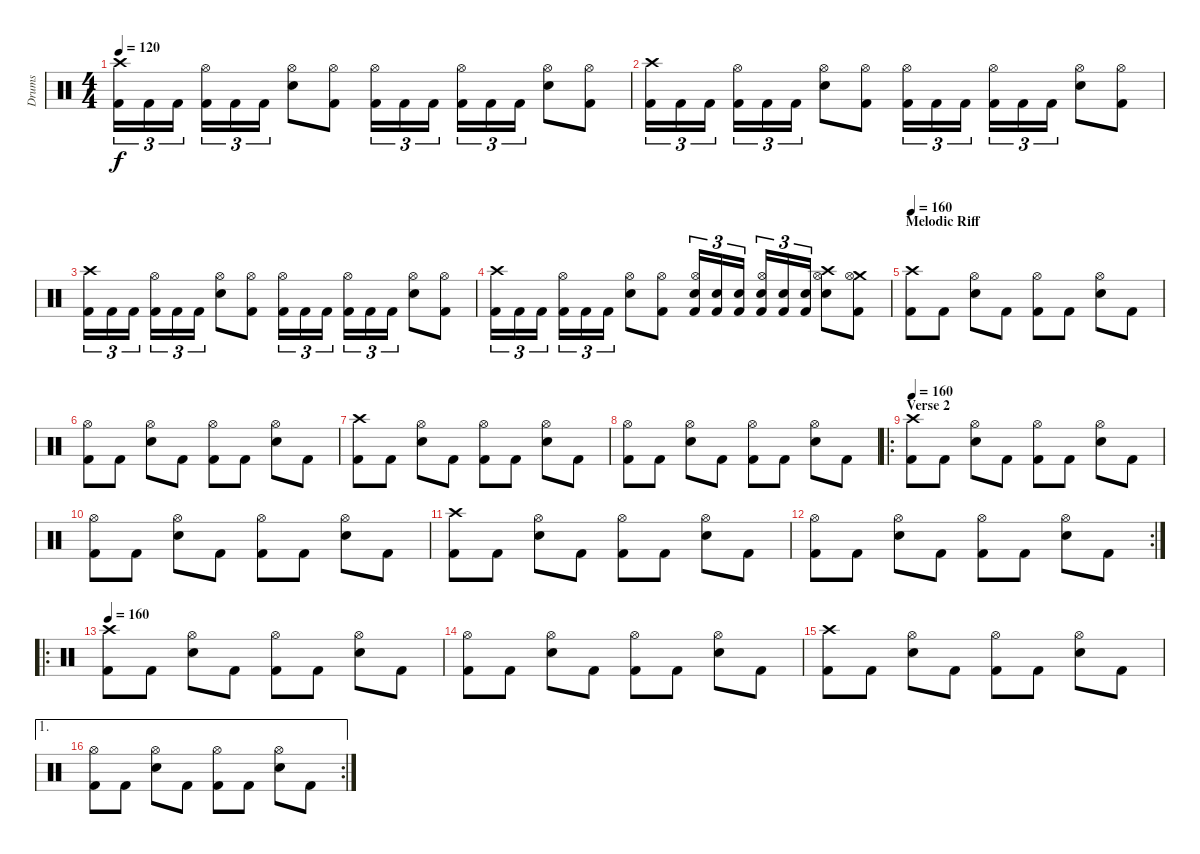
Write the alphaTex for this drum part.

\track ("Drums" "Drums") {instrument percussion}
\staff {score}
\articulation defaults
\ts (4 4)
\tempo 120
\clef neutral
\ks c
("Kick (hit) 2" "Crash high (hit)").16{tu (3 2) dy f} "Kick (hit) 2".16{tu (3 2)} "Kick (hit) 2".16{tu (3 2)} ("Kick (hit) 2" "Hi-Hat (open)").16{tu (3 2)} "Kick (hit) 2".16{tu (3 2)} "Kick (hit) 2".16{tu (3 2)} ("Electric Snare (hit)" "Hi-Hat (open)").8 ("Kick (hit) 2" "Hi-Hat (open)").8 ("Kick (hit) 2" "Hi-Hat (open)").16{tu (3 2)} "Kick (hit) 2".16{tu (3 2)} "Kick (hit) 2".16{tu (3 2)} ("Kick (hit) 2" "Hi-Hat (open)").16{tu (3 2)} "Kick (hit) 2".16{tu (3 2)} "Kick (hit) 2".16{tu (3 2)} ("Electric Snare (hit)" "Hi-Hat (open)").8 ("Kick (hit) 2" "Hi-Hat (open)").8 |
("Kick (hit) 2" "Crash high (hit)").16{tu (3 2)} "Kick (hit) 2".16{tu (3 2)} "Kick (hit) 2".16{tu (3 2)} ("Kick (hit) 2" "Hi-Hat (open)").16{tu (3 2)} "Kick (hit) 2".16{tu (3 2)} "Kick (hit) 2".16{tu (3 2)} ("Electric Snare (hit)" "Hi-Hat (open)").8 ("Kick (hit) 2" "Hi-Hat (open)").8 ("Kick (hit) 2" "Hi-Hat (open)").16{tu (3 2)} "Kick (hit) 2".16{tu (3 2)} "Kick (hit) 2".16{tu (3 2)} ("Kick (hit) 2" "Hi-Hat (open)").16{tu (3 2)} "Kick (hit) 2".16{tu (3 2)} "Kick (hit) 2".16{tu (3 2)} ("Electric Snare (hit)" "Hi-Hat (open)").8 ("Kick (hit) 2" "Hi-Hat (open)").8 |
("Kick (hit) 2" "Crash high (hit)").16{tu (3 2)} "Kick (hit) 2".16{tu (3 2)} "Kick (hit) 2".16{tu (3 2)} ("Kick (hit) 2" "Hi-Hat (open)").16{tu (3 2)} "Kick (hit) 2".16{tu (3 2)} "Kick (hit) 2".16{tu (3 2)} ("Electric Snare (hit)" "Hi-Hat (open)").8 ("Kick (hit) 2" "Hi-Hat (open)").8 ("Kick (hit) 2" "Hi-Hat (open)").16{tu (3 2)} "Kick (hit) 2".16{tu (3 2)} "Kick (hit) 2".16{tu (3 2)} ("Kick (hit) 2" "Hi-Hat (open)").16{tu (3 2)} "Kick (hit) 2".16{tu (3 2)} "Kick (hit) 2".16{tu (3 2)} ("Electric Snare (hit)" "Hi-Hat (open)").8 ("Kick (hit) 2" "Hi-Hat (open)").8 |
("Kick (hit) 2" "Crash high (hit)").16{tu (3 2)} "Kick (hit) 2".16{tu (3 2)} "Kick (hit) 2".16{tu (3 2)} ("Kick (hit) 2" "Hi-Hat (open)").16{tu (3 2)} "Kick (hit) 2".16{tu (3 2)} "Kick (hit) 2".16{tu (3 2)} ("Electric Snare (hit)" "Hi-Hat (open)").8 ("Kick (hit) 2" "Hi-Hat (open)").8 ("Kick (hit) 2" "Electric Snare (hit)" "Hi-Hat (open)").16{tu (3 2)} ("Kick (hit) 2" "Electric Snare (hit)").16{tu (3 2)} ("Kick (hit) 2" "Electric Snare (hit)").16{tu (3 2)} ("Kick (hit) 2" "Electric Snare (hit)" "Hi-Hat (open)").16{tu (3 2)} ("Kick (hit) 2" "Electric Snare (hit)").16{tu (3 2)} ("Kick (hit) 2" "Electric Snare (hit)").16{tu (3 2)} ("Crash high (hit)" "Electric Snare (hit)" "Hi-Hat (open)").8 ("Kick (hit) 2" "Crash medium (hit)" "Hi-Hat (open)").8 |
\section ("" "Melodic Riff")
\tempo 160
("Crash high (hit)" "Kick (hit) 2").8 "Kick (hit) 2".8 ("Hi-Hat (open)" "Electric Snare (hit)").8 "Kick (hit) 2".8 ("Hi-Hat (open)" "Kick (hit) 2").8 "Kick (hit) 2".8 ("Hi-Hat (open)" "Electric Snare (hit)").8 "Kick (hit) 2".8 |
("Hi-Hat (open)" "Kick (hit) 2").8 "Kick (hit) 2".8 ("Hi-Hat (open)" "Electric Snare (hit)").8 "Kick (hit) 2".8 ("Hi-Hat (open)" "Kick (hit) 2").8 "Kick (hit) 2".8 ("Hi-Hat (open)" "Electric Snare (hit)").8 "Kick (hit) 2".8 |
("Crash high (hit)" "Kick (hit) 2").8 "Kick (hit) 2".8 ("Hi-Hat (open)" "Electric Snare (hit)").8 "Kick (hit) 2".8 ("Hi-Hat (open)" "Kick (hit) 2").8 "Kick (hit) 2".8 ("Hi-Hat (open)" "Electric Snare (hit)").8 "Kick (hit) 2".8 |
("Hi-Hat (open)" "Kick (hit) 2").8 "Kick (hit) 2".8 ("Hi-Hat (open)" "Electric Snare (hit)").8 "Kick (hit) 2".8 ("Hi-Hat (open)" "Kick (hit) 2").8 "Kick (hit) 2".8 ("Hi-Hat (open)" "Electric Snare (hit)").8 "Kick (hit) 2".8 |
\ro
\section ("" "Verse 2")
\tempo 160
("Crash high (hit)" "Kick (hit) 2").8 "Kick (hit) 2".8 ("Hi-Hat (open)" "Electric Snare (hit)").8 "Kick (hit) 2".8 ("Hi-Hat (open)" "Kick (hit) 2").8 "Kick (hit) 2".8 ("Hi-Hat (open)" "Electric Snare (hit)").8 "Kick (hit) 2".8 |
("Hi-Hat (open)" "Kick (hit) 2").8 "Kick (hit) 2".8 ("Hi-Hat (open)" "Electric Snare (hit)").8 "Kick (hit) 2".8 ("Hi-Hat (open)" "Kick (hit) 2").8 "Kick (hit) 2".8 ("Hi-Hat (open)" "Electric Snare (hit)").8 "Kick (hit) 2".8 |
("Crash high (hit)" "Kick (hit) 2").8 "Kick (hit) 2".8 ("Hi-Hat (open)" "Electric Snare (hit)").8 "Kick (hit) 2".8 ("Hi-Hat (open)" "Kick (hit) 2").8 "Kick (hit) 2".8 ("Hi-Hat (open)" "Electric Snare (hit)").8 "Kick (hit) 2".8 |
\rc 2
("Hi-Hat (open)" "Kick (hit) 2").8 "Kick (hit) 2".8 ("Hi-Hat (open)" "Electric Snare (hit)").8 "Kick (hit) 2".8 ("Hi-Hat (open)" "Kick (hit) 2").8 "Kick (hit) 2".8 ("Hi-Hat (open)" "Electric Snare (hit)").8 "Kick (hit) 2".8 |
\ro
\tempo 160
("Crash high (hit)" "Kick (hit) 2").8 "Kick (hit) 2".8 ("Hi-Hat (open)" "Electric Snare (hit)").8 "Kick (hit) 2".8 ("Hi-Hat (open)" "Kick (hit) 2").8 "Kick (hit) 2".8 ("Hi-Hat (open)" "Electric Snare (hit)").8 "Kick (hit) 2".8 |
("Hi-Hat (open)" "Kick (hit) 2").8 "Kick (hit) 2".8 ("Hi-Hat (open)" "Electric Snare (hit)").8 "Kick (hit) 2".8 ("Hi-Hat (open)" "Kick (hit) 2").8 "Kick (hit) 2".8 ("Hi-Hat (open)" "Electric Snare (hit)").8 "Kick (hit) 2".8 |
("Crash high (hit)" "Kick (hit) 2").8 "Kick (hit) 2".8 ("Hi-Hat (open)" "Electric Snare (hit)").8 "Kick (hit) 2".8 ("Hi-Hat (open)" "Kick (hit) 2").8 "Kick (hit) 2".8 ("Hi-Hat (open)" "Electric Snare (hit)").8 "Kick (hit) 2".8 |
\ae 1
\rc 2
("Hi-Hat (open)" "Kick (hit) 2").8 "Kick (hit) 2".8 ("Hi-Hat (open)" "Electric Snare (hit)").8 "Kick (hit) 2".8 ("Hi-Hat (open)" "Kick (hit) 2").8 "Kick (hit) 2".8 ("Hi-Hat (open)" "Electric Snare (hit)").8 "Kick (hit) 2".8
